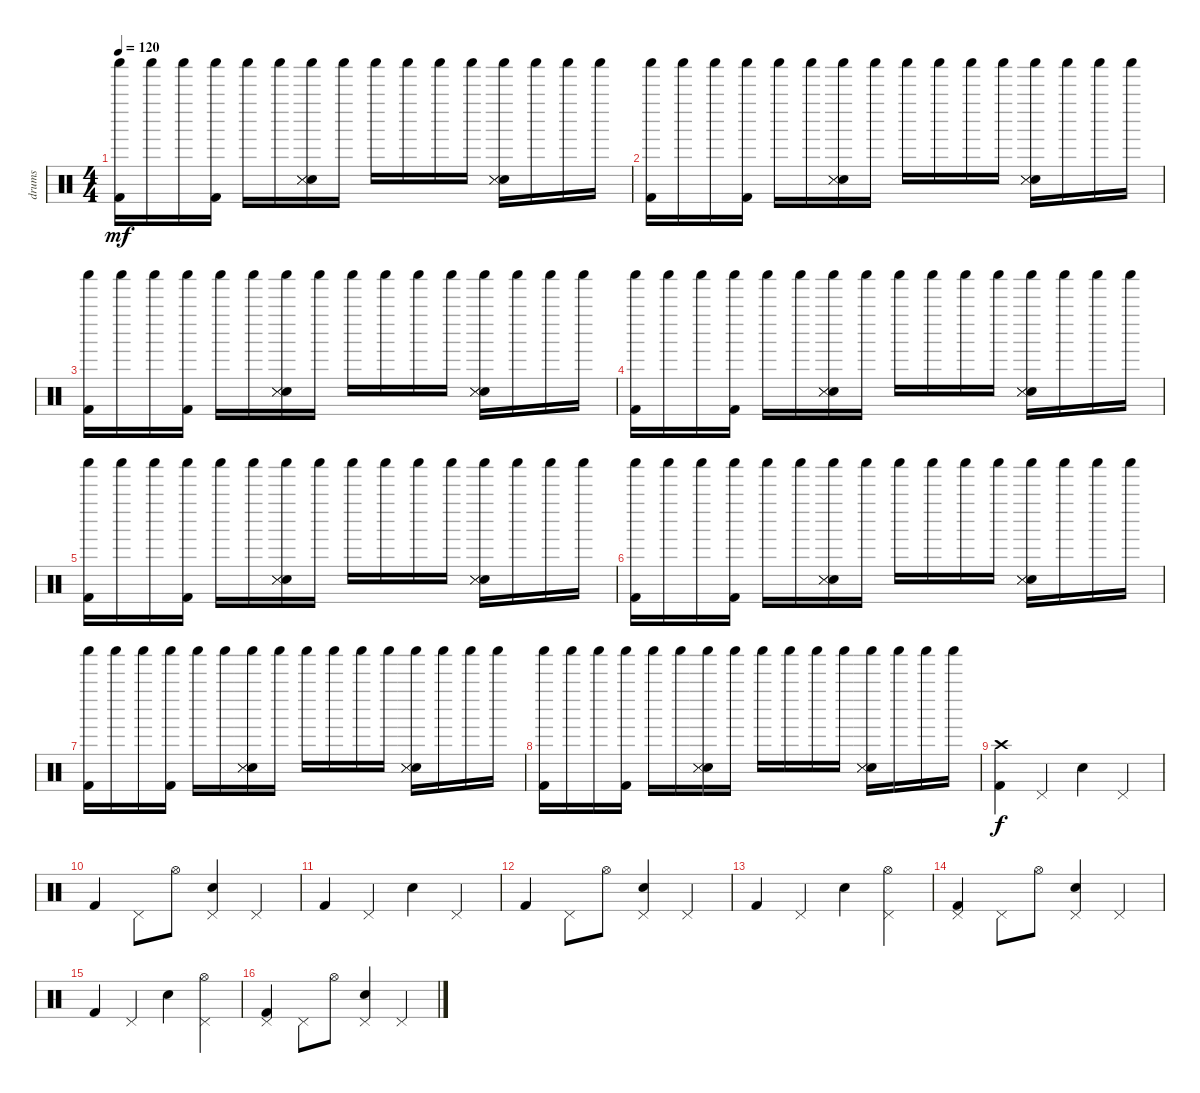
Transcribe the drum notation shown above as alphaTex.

\track ("drums" "drums") {instrument percussion}
\staff {score}
\articulation defaults
\ts (4 4)
\tempo 120
\clef neutral
\ks c
("Kick (hit) 2" "Shaker (hit)").16{dy mf} "Shaker (hit)".16 "Shaker (hit)".16 ("Kick (hit) 2" "Shaker (hit)").16 "Shaker (hit)".16 "Shaker (hit)".16 ("Electric Snare (hit)" "Snare (side stick) 3" "Snare (side stick) 3" "Shaker (hit)").16 "Shaker (hit)".16 "Shaker (hit)".16 "Shaker (hit)".16 "Shaker (hit)".16 "Shaker (hit)".16 ("Electric Snare (hit)" "Snare (side stick) 3" "Snare (side stick) 3" "Shaker (hit)").16 "Shaker (hit)".16 "Shaker (hit)".16 "Shaker (hit)".16 |
("Kick (hit) 2" "Shaker (hit)").16 "Shaker (hit)".16 "Shaker (hit)".16 ("Kick (hit) 2" "Shaker (hit)").16 "Shaker (hit)".16 "Shaker (hit)".16 ("Electric Snare (hit)" "Snare (side stick) 3" "Snare (side stick) 3" "Shaker (hit)").16 "Shaker (hit)".16 "Shaker (hit)".16 "Shaker (hit)".16 "Shaker (hit)".16 "Shaker (hit)".16 ("Electric Snare (hit)" "Snare (side stick) 3" "Snare (side stick) 3" "Shaker (hit)").16 "Shaker (hit)".16 "Shaker (hit)".16 "Shaker (hit)".16 |
("Kick (hit) 2" "Shaker (hit)").16 "Shaker (hit)".16 "Shaker (hit)".16 ("Kick (hit) 2" "Shaker (hit)").16 "Shaker (hit)".16 "Shaker (hit)".16 ("Electric Snare (hit)" "Snare (side stick) 3" "Snare (side stick) 3" "Shaker (hit)").16 "Shaker (hit)".16 "Shaker (hit)".16 "Shaker (hit)".16 "Shaker (hit)".16 "Shaker (hit)".16 ("Electric Snare (hit)" "Snare (side stick) 3" "Snare (side stick) 3" "Shaker (hit)").16 "Shaker (hit)".16 "Shaker (hit)".16 "Shaker (hit)".16 |
("Kick (hit) 2" "Shaker (hit)").16 "Shaker (hit)".16 "Shaker (hit)".16 ("Kick (hit) 2" "Shaker (hit)").16 "Shaker (hit)".16 "Shaker (hit)".16 ("Electric Snare (hit)" "Snare (side stick) 3" "Snare (side stick) 3" "Shaker (hit)").16 "Shaker (hit)".16 "Shaker (hit)".16 "Shaker (hit)".16 "Shaker (hit)".16 "Shaker (hit)".16 ("Electric Snare (hit)" "Snare (side stick) 3" "Snare (side stick) 3" "Shaker (hit)").16 "Shaker (hit)".16 "Shaker (hit)".16 "Shaker (hit)".16 |
("Kick (hit) 2" "Shaker (hit)").16 "Shaker (hit)".16 "Shaker (hit)".16 ("Kick (hit) 2" "Shaker (hit)").16 "Shaker (hit)".16 "Shaker (hit)".16 ("Electric Snare (hit)" "Snare (side stick) 3" "Snare (side stick) 3" "Shaker (hit)").16 "Shaker (hit)".16 "Shaker (hit)".16 "Shaker (hit)".16 "Shaker (hit)".16 "Shaker (hit)".16 ("Electric Snare (hit)" "Snare (side stick) 3" "Snare (side stick) 3" "Shaker (hit)").16 "Shaker (hit)".16 "Shaker (hit)".16 "Shaker (hit)".16 |
("Kick (hit) 2" "Shaker (hit)").16 "Shaker (hit)".16 "Shaker (hit)".16 ("Kick (hit) 2" "Shaker (hit)").16 "Shaker (hit)".16 "Shaker (hit)".16 ("Electric Snare (hit)" "Snare (side stick) 3" "Snare (side stick) 3" "Shaker (hit)").16 "Shaker (hit)".16 "Shaker (hit)".16 "Shaker (hit)".16 "Shaker (hit)".16 "Shaker (hit)".16 ("Electric Snare (hit)" "Snare (side stick) 3" "Snare (side stick) 3" "Shaker (hit)").16 "Shaker (hit)".16 "Shaker (hit)".16 "Shaker (hit)".16 |
("Kick (hit) 2" "Shaker (hit)").16 "Shaker (hit)".16 "Shaker (hit)".16 ("Kick (hit) 2" "Shaker (hit)").16 "Shaker (hit)".16 "Shaker (hit)".16 ("Electric Snare (hit)" "Snare (side stick) 3" "Snare (side stick) 3" "Shaker (hit)").16 "Shaker (hit)".16 "Shaker (hit)".16 "Shaker (hit)".16 "Shaker (hit)".16 "Shaker (hit)".16 ("Electric Snare (hit)" "Snare (side stick) 3" "Snare (side stick) 3" "Shaker (hit)").16 "Shaker (hit)".16 "Shaker (hit)".16 "Shaker (hit)".16 |
("Kick (hit) 2" "Shaker (hit)").16 "Shaker (hit)".16 "Shaker (hit)".16 ("Kick (hit) 2" "Shaker (hit)").16 "Shaker (hit)".16 "Shaker (hit)".16 ("Electric Snare (hit)" "Snare (side stick) 3" "Snare (side stick) 3" "Shaker (hit)").16 "Shaker (hit)".16 "Shaker (hit)".16 "Shaker (hit)".16 "Shaker (hit)".16 "Shaker (hit)".16 ("Electric Snare (hit)" "Snare (side stick) 3" "Snare (side stick) 3" "Shaker (hit)").16 "Shaker (hit)".16 "Shaker (hit)".16 "Shaker (hit)".16 |
("Kick (hit) 2" "Crash high (hit)").4{dy f} "Pedal Hi-Hat (hit)".4 "Electric Snare (hit)".4 "Pedal Hi-Hat (hit)".4 |
"Kick (hit) 2".4 "Pedal Hi-Hat (hit)".8 "Hi-Hat (open)".8 ("Pedal Hi-Hat (hit)" "Electric Snare (hit)").4 "Pedal Hi-Hat (hit)".4 |
"Kick (hit) 2".4 "Pedal Hi-Hat (hit)".4 "Electric Snare (hit)".4 "Pedal Hi-Hat (hit)".4 |
"Kick (hit) 2".4 "Pedal Hi-Hat (hit)".8 "Hi-Hat (open)".8 ("Pedal Hi-Hat (hit)" "Electric Snare (hit)").4 "Pedal Hi-Hat (hit)".4 |
"Kick (hit) 2".4 "Pedal Hi-Hat (hit)".4 "Electric Snare (hit)".4 ("Pedal Hi-Hat (hit)" "Hi-Hat (open)").4 |
("Pedal Hi-Hat (hit)" "Kick (hit) 2").4 "Pedal Hi-Hat (hit)".8 "Hi-Hat (open)".8 ("Pedal Hi-Hat (hit)" "Electric Snare (hit)").4 "Pedal Hi-Hat (hit)".4 |
"Kick (hit) 2".4 "Pedal Hi-Hat (hit)".4 "Electric Snare (hit)".4 ("Pedal Hi-Hat (hit)" "Hi-Hat (open)").4 |
("Pedal Hi-Hat (hit)" "Kick (hit) 2").4 "Pedal Hi-Hat (hit)".8 "Hi-Hat (open)".8 ("Pedal Hi-Hat (hit)" "Electric Snare (hit)").4 "Pedal Hi-Hat (hit)".4
